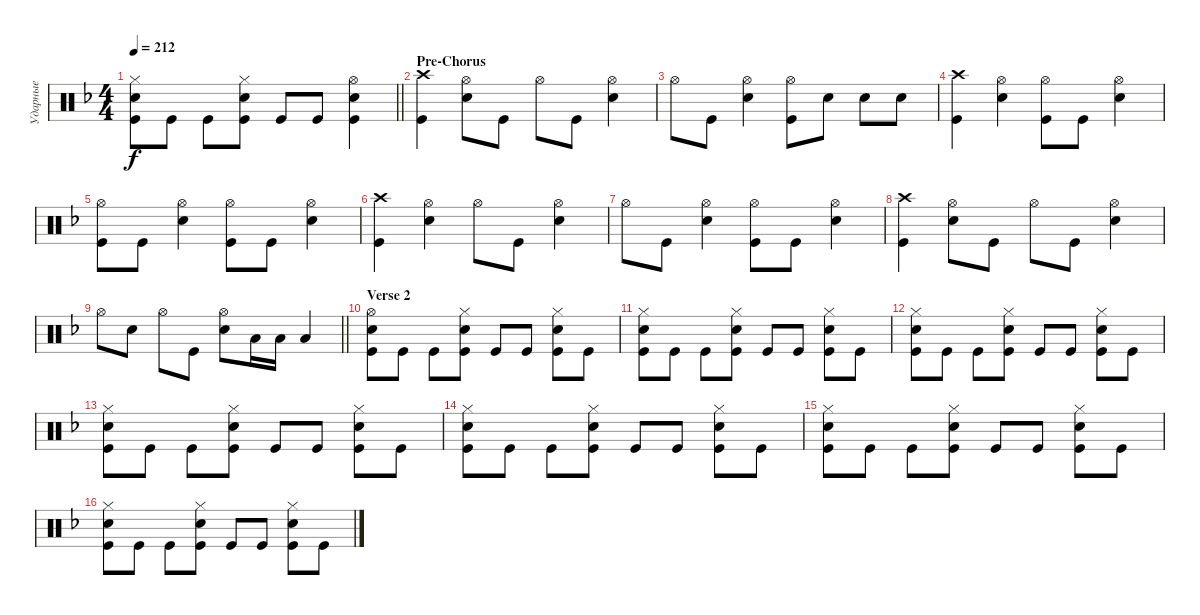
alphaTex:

\track ("Ударные" "Ударные") {instrument percussion}
\staff {score}
\articulation defaults
\ts (4 4)
\tempo 212
\clef neutral
\barLineRight lightlight
\ks dminor
("Hi-Hat (closed)" "Kick (hit)" "Snare (hit) 2").8{dy f} "Kick (hit)".8 "Kick (hit)".8 ("Snare (hit) 2" "Hi-Hat (closed)" "Kick (hit)").8 "Kick (hit)".8 "Kick (hit)".8 ("Hi-Hat (open)" "Kick (hit)" "Snare (hit) 2").4 |
\section ("" "Pre-Chorus")
("Kick (hit)" "Crash high (hit)").4 ("Snare (hit) 2" "Hi-Hat (open)").8 "Kick (hit)".8 "Hi-Hat (open)".8 "Kick (hit)".8 ("Snare (hit) 2" "Hi-Hat (open)").4 |
"Hi-Hat (open)".8 "Kick (hit)".8 ("Snare (hit) 2" "Hi-Hat (open)").4 ("Hi-Hat (open)" "Kick (hit)").8 "Snare (hit) 2".8 "Snare (hit) 2".8 "Snare (hit) 2".8 |
("Kick (hit)" "Crash high (hit)").4 ("Snare (hit) 2" "Hi-Hat (open)").4 ("Hi-Hat (open)" "Kick (hit)").8 "Kick (hit)".8 ("Snare (hit) 2" "Hi-Hat (open)").4 |
("Hi-Hat (open)" "Kick (hit)").8 "Kick (hit)".8 ("Hi-Hat (open)" "Snare (hit) 2").4 ("Hi-Hat (open)" "Kick (hit)").8 "Kick (hit)".8 ("Snare (hit) 2" "Hi-Hat (open)").4 |
("Kick (hit)" "Crash high (hit)").4 ("Snare (hit) 2" "Hi-Hat (open)").4 "Hi-Hat (open)".8 "Kick (hit)".8 ("Snare (hit) 2" "Hi-Hat (open)").4 |
"Hi-Hat (open)".8 "Kick (hit)".8 ("Hi-Hat (open)" "Snare (hit) 2").4 ("Hi-Hat (open)" "Kick (hit)").8 "Kick (hit)".8 ("Hi-Hat (open)" "Snare (hit) 2").4 |
("Kick (hit)" "Crash high (hit)").4 ("Snare (hit) 2" "Hi-Hat (open)").8 "Kick (hit)".8 "Hi-Hat (open)".8 "Kick (hit)".8 ("Snare (hit) 2" "Hi-Hat (open)").4 |
\barLineRight lightlight "Hi-Hat (open)".8 "Snare (hit) 2".8 "Hi-Hat (open)".8 "Kick (hit)".8
("Hi-Hat (open)" "Snare (hit) 2").8 "Low Tom (hit)".16 "Low Tom (hit)".16 "Low Tom (hit)".4 |
\section ("" "Verse 2")
("Hi-Hat (open)" "Kick (hit)" "Snare (hit) 2").8 "Kick (hit)".8 "Kick (hit)".8 ("Snare (hit) 2" "Hi-Hat (closed)" "Kick (hit)").8 "Kick (hit)".8 "Kick (hit)".8 ("Hi-Hat (closed)" "Kick (hit)" "Snare (hit) 2").8 "Kick (hit)".8 |
("Hi-Hat (closed)" "Kick (hit)" "Snare (hit) 2").8 "Kick (hit)".8 "Kick (hit)".8 ("Snare (hit) 2" "Hi-Hat (closed)" "Kick (hit)").8 "Kick (hit)".8 "Kick (hit)".8 ("Hi-Hat (closed)" "Kick (hit)" "Snare (hit) 2").8 "Kick (hit)".8 |
("Hi-Hat (closed)" "Kick (hit)" "Snare (hit) 2").8 "Kick (hit)".8 "Kick (hit)".8 ("Snare (hit) 2" "Hi-Hat (closed)" "Kick (hit)").8 "Kick (hit)".8 "Kick (hit)".8 ("Hi-Hat (closed)" "Kick (hit)" "Snare (hit) 2").8 "Kick (hit)".8 |
("Hi-Hat (closed)" "Kick (hit)" "Snare (hit) 2").8 "Kick (hit)".8 "Kick (hit)".8 ("Snare (hit) 2" "Hi-Hat (closed)" "Kick (hit)").8 "Kick (hit)".8 "Kick (hit)".8 ("Hi-Hat (closed)" "Kick (hit)" "Snare (hit) 2").8 "Kick (hit)".8 |
("Hi-Hat (closed)" "Kick (hit)" "Snare (hit) 2").8 "Kick (hit)".8 "Kick (hit)".8 ("Snare (hit) 2" "Hi-Hat (closed)" "Kick (hit)").8 "Kick (hit)".8 "Kick (hit)".8 ("Hi-Hat (closed)" "Kick (hit)" "Snare (hit) 2").8 "Kick (hit)".8 |
("Hi-Hat (closed)" "Kick (hit)" "Snare (hit) 2").8 "Kick (hit)".8 "Kick (hit)".8 ("Snare (hit) 2" "Hi-Hat (closed)" "Kick (hit)").8 "Kick (hit)".8 "Kick (hit)".8 ("Hi-Hat (closed)" "Kick (hit)" "Snare (hit) 2").8 "Kick (hit)".8 |
("Hi-Hat (closed)" "Kick (hit)" "Snare (hit) 2").8 "Kick (hit)".8 "Kick (hit)".8 ("Snare (hit) 2" "Hi-Hat (closed)" "Kick (hit)").8 "Kick (hit)".8 "Kick (hit)".8 ("Hi-Hat (closed)" "Kick (hit)" "Snare (hit) 2").8 "Kick (hit)".8
